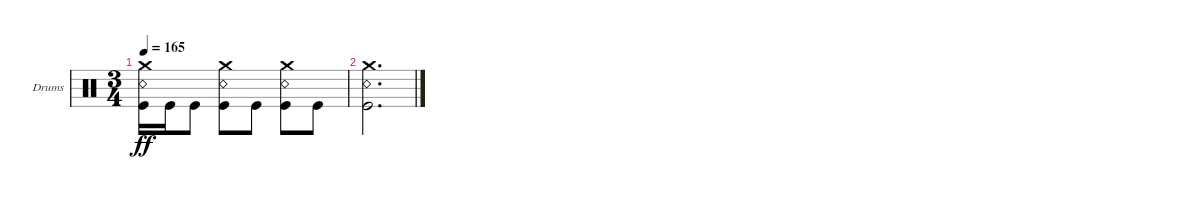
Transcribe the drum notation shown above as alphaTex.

\bracketExtendMode groupsimilarinstruments
\firstSystemTrackNameOrientation horizontal
\otherSystemsTrackNameOrientation horizontal
\track ("Kaleb - Drums" "Drums") {instrument percussion}
\staff {score}
\articulation defaults
\ts (3 4)
\tempo 165
\clef neutral
\ks c
("Kick (hit)" "Snare (rim shot)" "Crash medium (hit)").16{dy ff} "Kick (hit)".16 "Kick (hit)".8 ("Kick (hit)" "Snare (rim shot)" "Crash medium (hit)").8 "Kick (hit)".8 ("Kick (hit)" "Snare (rim shot)" "Crash medium (hit)").8 "Kick (hit)".8 |
("Crash medium (hit)" "Kick (hit)" "Snare (rim shot)").2{d}
